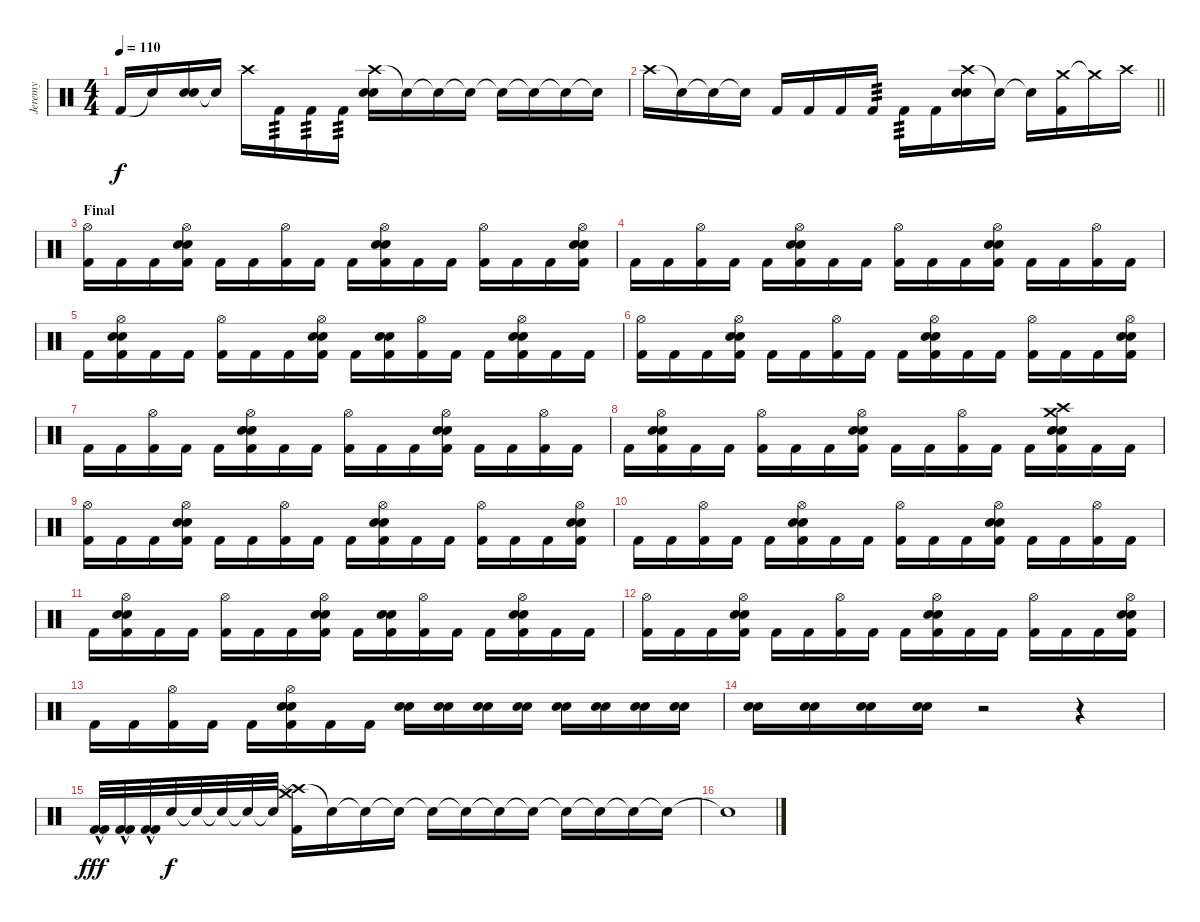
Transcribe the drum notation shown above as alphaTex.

\track ("Jeremy" "Jeremy") {instrument percussion}
\staff {score}
\articulation defaults
\ts (4 4)
\tempo 110
\clef neutral
\ks c "Kick (hit) 2".16{dy f} "Snare (hit)"{t}.16
("Electric Snare (hit)" "Snare (hit) 2").16 "Snare (hit)"{t}.16 "Crash high (hit)".16 "Kick (hit) 2".16{tp 3} "Kick (hit) 2".16{tp 3} "Kick (hit) 2".16{tp 3} ("Crash high (hit)" "Electric Snare (hit)" "Snare (hit) 2").16 "Snare (hit)"{t}.16 "Snare (hit)"{t}.16 "Snare (hit)"{t}.16 "Snare (hit)"{t}.16 "Snare (hit)"{t}.16 "Snare (hit)"{t}.16 "Snare (hit)"{t}.16 |
\barLineRight lightlight "Crash high (hit)".16 "Snare (hit)"{t}.16 "Snare (hit)"{t}.16 "Snare (hit)"{t}.16 "Kick (hit) 2".16 "Kick (hit) 2".16 "Kick (hit) 2".16 "Kick (hit) 2".16{tp 3} "Kick (hit) 2".16{tp 3} "Kick (hit) 2".16
("Crash high (hit)" "Electric Snare (hit)" "Snare (hit) 2").16 "Snare (hit)"{t}.16 "Snare (hit)"{t}.16 ("Crash medium (hit)" "Kick (hit) 2").16 "Crash medium (hit)"{t}.16 "Crash high (hit)".16 |
\section ("" "Final")
("Hi-Hat (open)" "Kick (hit) 2").16 "Kick (hit) 2".16 "Kick (hit) 2".16 ("Hi-Hat (open)" "Electric Snare (hit)" "Snare (hit) 2" "Kick (hit) 2").16 "Kick (hit) 2".16 "Kick (hit) 2".16 ("Hi-Hat (open)" "Kick (hit) 2").16 "Kick (hit) 2".16 "Kick (hit) 2".16 ("Hi-Hat (open)" "Electric Snare (hit)" "Snare (hit) 2" "Kick (hit) 2").16 "Kick (hit) 2".16 "Kick (hit) 2".16 ("Hi-Hat (open)" "Kick (hit) 2").16 "Kick (hit) 2".16 "Kick (hit) 2".16 ("Hi-Hat (open)" "Electric Snare (hit)" "Snare (hit) 2" "Kick (hit) 2").16 |
"Kick (hit) 2".16 "Kick (hit) 2".16 ("Hi-Hat (open)" "Kick (hit) 2").16 "Kick (hit) 2".16 "Kick (hit) 2".16 ("Hi-Hat (open)" "Electric Snare (hit)" "Snare (hit) 2" "Kick (hit) 2").16 "Kick (hit) 2".16 "Kick (hit) 2".16 ("Hi-Hat (open)" "Kick (hit) 2").16 "Kick (hit) 2".16 "Kick (hit) 2".16 ("Hi-Hat (open)" "Electric Snare (hit)" "Snare (hit) 2" "Kick (hit) 2").16 "Kick (hit) 2".16 "Kick (hit) 2".16 ("Hi-Hat (open)" "Kick (hit) 2").16 "Kick (hit) 2".16 |
"Kick (hit) 2".16 ("Hi-Hat (open)" "Electric Snare (hit)" "Snare (hit) 2" "Kick (hit) 2").16 "Kick (hit) 2".16 "Kick (hit) 2".16 ("Hi-Hat (open)" "Kick (hit) 2").16 "Kick (hit) 2".16 "Kick (hit) 2".16 ("Hi-Hat (open)" "Electric Snare (hit)" "Snare (hit) 2" "Kick (hit) 2").16 "Kick (hit) 2".16 ("Electric Snare (hit)" "Snare (hit) 2" "Kick (hit) 2").16 ("Hi-Hat (open)" "Kick (hit) 2").16 "Kick (hit) 2".16 "Kick (hit) 2".16 ("Hi-Hat (open)" "Electric Snare (hit)" "Snare (hit) 2" "Kick (hit) 2").16 "Kick (hit) 2".16 "Kick (hit) 2".16 |
("Hi-Hat (open)" "Kick (hit) 2").16 "Kick (hit) 2".16 "Kick (hit) 2".16 ("Hi-Hat (open)" "Electric Snare (hit)" "Snare (hit) 2" "Kick (hit) 2").16 "Kick (hit) 2".16 "Kick (hit) 2".16 ("Hi-Hat (open)" "Kick (hit) 2").16 "Kick (hit) 2".16 "Kick (hit) 2".16 ("Hi-Hat (open)" "Electric Snare (hit)" "Snare (hit) 2" "Kick (hit) 2").16 "Kick (hit) 2".16 "Kick (hit) 2".16 ("Hi-Hat (open)" "Kick (hit) 2").16 "Kick (hit) 2".16 "Kick (hit) 2".16 ("Hi-Hat (open)" "Electric Snare (hit)" "Snare (hit) 2" "Kick (hit) 2").16 |
"Kick (hit) 2".16 "Kick (hit) 2".16 ("Hi-Hat (open)" "Kick (hit) 2").16 "Kick (hit) 2".16 "Kick (hit) 2".16 ("Hi-Hat (open)" "Electric Snare (hit)" "Snare (hit) 2" "Kick (hit) 2").16 "Kick (hit) 2".16 "Kick (hit) 2".16 ("Hi-Hat (open)" "Kick (hit) 2").16 "Kick (hit) 2".16 "Kick (hit) 2".16 ("Hi-Hat (open)" "Electric Snare (hit)" "Snare (hit) 2" "Kick (hit) 2").16 "Kick (hit) 2".16 "Kick (hit) 2".16 ("Hi-Hat (open)" "Kick (hit) 2").16 "Kick (hit) 2".16 |
"Kick (hit) 2".16 ("Hi-Hat (open)" "Electric Snare (hit)" "Snare (hit) 2" "Kick (hit) 2").16 "Kick (hit) 2".16 "Kick (hit) 2".16 ("Hi-Hat (open)" "Kick (hit) 2").16 "Kick (hit) 2".16 "Kick (hit) 2".16 ("Hi-Hat (open)" "Electric Snare (hit)" "Snare (hit) 2" "Kick (hit) 2").16 "Kick (hit) 2".16 "Kick (hit) 2".16 ("Hi-Hat (open)" "Kick (hit) 2").16 "Kick (hit) 2".16 "Kick (hit) 2".16 ("Crash medium (hit)" "Crash high (hit)" "Electric Snare (hit)" "Snare (hit) 2" "Kick (hit) 2").16 "Kick (hit) 2".16 "Kick (hit) 2".16 |
("Hi-Hat (open)" "Kick (hit) 2").16 "Kick (hit) 2".16 "Kick (hit) 2".16 ("Hi-Hat (open)" "Electric Snare (hit)" "Snare (hit) 2" "Kick (hit) 2").16 "Kick (hit) 2".16 "Kick (hit) 2".16 ("Hi-Hat (open)" "Kick (hit) 2").16 "Kick (hit) 2".16 "Kick (hit) 2".16 ("Hi-Hat (open)" "Electric Snare (hit)" "Snare (hit) 2" "Kick (hit) 2").16 "Kick (hit) 2".16 "Kick (hit) 2".16 ("Hi-Hat (open)" "Kick (hit) 2").16 "Kick (hit) 2".16 "Kick (hit) 2".16 ("Hi-Hat (open)" "Electric Snare (hit)" "Snare (hit) 2" "Kick (hit) 2").16 |
"Kick (hit) 2".16 "Kick (hit) 2".16 ("Hi-Hat (open)" "Kick (hit) 2").16 "Kick (hit) 2".16 "Kick (hit) 2".16 ("Hi-Hat (open)" "Electric Snare (hit)" "Snare (hit) 2" "Kick (hit) 2").16 "Kick (hit) 2".16 "Kick (hit) 2".16 ("Hi-Hat (open)" "Kick (hit) 2").16 "Kick (hit) 2".16 "Kick (hit) 2".16 ("Hi-Hat (open)" "Electric Snare (hit)" "Snare (hit) 2" "Kick (hit) 2").16 "Kick (hit) 2".16 "Kick (hit) 2".16 ("Hi-Hat (open)" "Kick (hit) 2").16 "Kick (hit) 2".16 |
"Kick (hit) 2".16 ("Hi-Hat (open)" "Electric Snare (hit)" "Snare (hit) 2" "Kick (hit) 2").16 "Kick (hit) 2".16 "Kick (hit) 2".16 ("Hi-Hat (open)" "Kick (hit) 2").16 "Kick (hit) 2".16 "Kick (hit) 2".16 ("Hi-Hat (open)" "Electric Snare (hit)" "Snare (hit) 2" "Kick (hit) 2").16 "Kick (hit) 2".16 ("Electric Snare (hit)" "Snare (hit) 2" "Kick (hit) 2").16 ("Hi-Hat (open)" "Kick (hit) 2").16 "Kick (hit) 2".16 "Kick (hit) 2".16 ("Hi-Hat (open)" "Electric Snare (hit)" "Snare (hit) 2" "Kick (hit) 2").16 "Kick (hit) 2".16 "Kick (hit) 2".16 |
("Hi-Hat (open)" "Kick (hit) 2").16 "Kick (hit) 2".16 "Kick (hit) 2".16 ("Hi-Hat (open)" "Electric Snare (hit)" "Snare (hit) 2" "Kick (hit) 2").16 "Kick (hit) 2".16 "Kick (hit) 2".16 ("Hi-Hat (open)" "Kick (hit) 2").16 "Kick (hit) 2".16 "Kick (hit) 2".16 ("Hi-Hat (open)" "Electric Snare (hit)" "Snare (hit) 2" "Kick (hit) 2").16 "Kick (hit) 2".16 "Kick (hit) 2".16 ("Hi-Hat (open)" "Kick (hit) 2").16 "Kick (hit) 2".16 "Kick (hit) 2".16 ("Hi-Hat (open)" "Electric Snare (hit)" "Snare (hit) 2" "Kick (hit) 2").16 |
"Kick (hit) 2".16 "Kick (hit) 2".16 ("Hi-Hat (open)" "Kick (hit) 2").16 "Kick (hit) 2".16 "Kick (hit) 2".16 ("Hi-Hat (open)" "Electric Snare (hit)" "Snare (hit) 2" "Kick (hit) 2").16 "Kick (hit) 2".16 "Kick (hit) 2".16 ("Electric Snare (hit)" "Snare (hit) 2").16 ("Electric Snare (hit)" "Snare (hit) 2").16 ("Electric Snare (hit)" "Snare (hit) 2").16 ("Electric Snare (hit)" "Snare (hit) 2").16 ("Electric Snare (hit)" "Snare (hit) 2").16 ("Electric Snare (hit)" "Snare (hit) 2").16 ("Electric Snare (hit)" "Snare (hit) 2").16 ("Electric Snare (hit)" "Snare (hit) 2").16 |
("Electric Snare (hit)" "Snare (hit) 2").16 ("Electric Snare (hit)" "Snare (hit) 2").16 ("Electric Snare (hit)" "Snare (hit) 2").16 ("Electric Snare (hit)" "Snare (hit) 2").16 r.2 r.4 |
("Kick (hit) 2"{hac} "Kick (hit) 2"{hac}).32{dy fff} ("Kick (hit) 2"{hac} "Kick (hit) 2"{hac}).32 ("Kick (hit) 2"{hac} "Kick (hit) 2"{hac}).32 "Electric Snare (hit)".32{dy f} "Snare (hit)"{t}.32 "Snare (hit)"{t}.32 "Snare (hit)"{t}.32 "Snare (hit)"{t}.32 ("Crash high (hit)" "Splash (hit)" "Crash medium (hit)" "Kick (hit) 2").16 "Snare (hit)"{t}.16 "Snare (hit)"{t}.16 "Snare (hit)"{t}.16 "Snare (hit)"{t}.16 "Snare (hit)"{t}.16 "Snare (hit)"{t}.16 "Snare (hit)"{t}.16 "Snare (hit)"{t}.16 "Snare (hit)"{t}.16 "Snare (hit)"{t}.16 "Snare (hit)"{t}.16 |
"Snare (hit)"{t}.1
